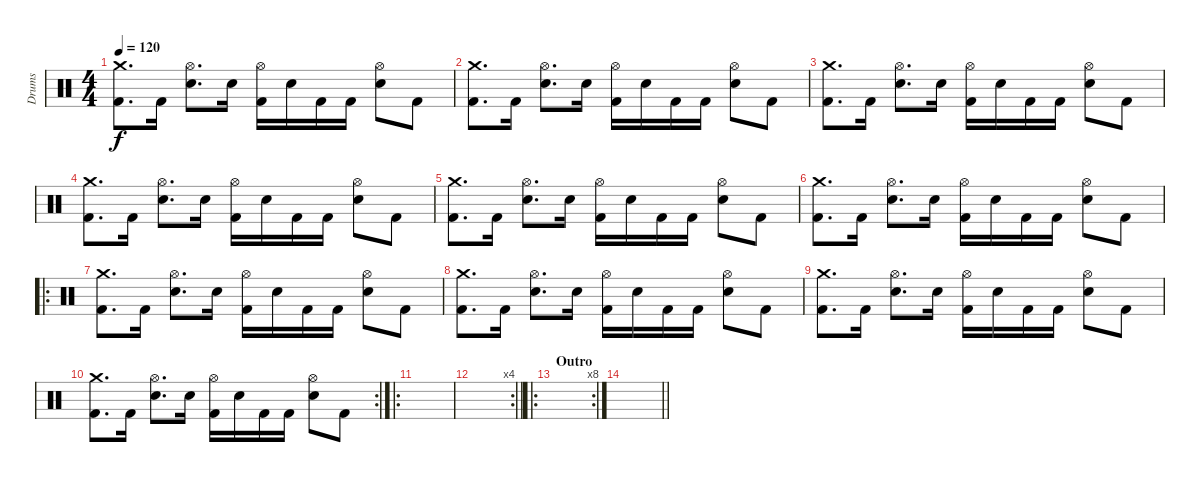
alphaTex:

\track ("Drums" "Drums") {instrument percussion}
\staff {score}
\articulation defaults
\ts (4 4)
\tempo 120
\clef neutral
\ks c
("Crash medium (hit)" "Kick (hit) 2").8{d dy f} "Kick (hit) 2".16 ("Hi-Hat (open)" "Electric Snare (hit)").8{d} "Electric Snare (hit)".16 ("Hi-Hat (open)" "Kick (hit) 2").16 "Electric Snare (hit)".16 "Kick (hit) 2".16 "Kick (hit) 2".16 ("Hi-Hat (open)" "Electric Snare (hit)").8 "Kick (hit) 2".8 |
("Crash medium (hit)" "Kick (hit) 2").8{d} "Kick (hit) 2".16 ("Hi-Hat (open)" "Electric Snare (hit)").8{d} "Electric Snare (hit)".16 ("Hi-Hat (open)" "Kick (hit) 2").16 "Electric Snare (hit)".16 "Kick (hit) 2".16 "Kick (hit) 2".16 ("Hi-Hat (open)" "Electric Snare (hit)").8 "Kick (hit) 2".8 |
("Crash medium (hit)" "Kick (hit) 2").8{d} "Kick (hit) 2".16 ("Hi-Hat (open)" "Electric Snare (hit)").8{d} "Electric Snare (hit)".16 ("Hi-Hat (open)" "Kick (hit) 2").16 "Electric Snare (hit)".16 "Kick (hit) 2".16 "Kick (hit) 2".16 ("Hi-Hat (open)" "Electric Snare (hit)").8 "Kick (hit) 2".8 |
("Crash medium (hit)" "Kick (hit) 2").8{d} "Kick (hit) 2".16 ("Hi-Hat (open)" "Electric Snare (hit)").8{d} "Electric Snare (hit)".16 ("Hi-Hat (open)" "Kick (hit) 2").16 "Electric Snare (hit)".16 "Kick (hit) 2".16 "Kick (hit) 2".16 ("Hi-Hat (open)" "Electric Snare (hit)").8 "Kick (hit) 2".8 |
("Crash medium (hit)" "Kick (hit) 2").8{d} "Kick (hit) 2".16 ("Hi-Hat (open)" "Electric Snare (hit)").8{d} "Electric Snare (hit)".16 ("Hi-Hat (open)" "Kick (hit) 2").16 "Electric Snare (hit)".16 "Kick (hit) 2".16 "Kick (hit) 2".16 ("Hi-Hat (open)" "Electric Snare (hit)").8 "Kick (hit) 2".8 |
("Crash medium (hit)" "Kick (hit) 2").8{d} "Kick (hit) 2".16 ("Hi-Hat (open)" "Electric Snare (hit)").8{d} "Electric Snare (hit)".16 ("Hi-Hat (open)" "Kick (hit) 2").16 "Electric Snare (hit)".16 "Kick (hit) 2".16 "Kick (hit) 2".16 ("Hi-Hat (open)" "Electric Snare (hit)").8 "Kick (hit) 2".8 |
\ro
("Crash medium (hit)" "Kick (hit) 2").8{d} "Kick (hit) 2".16 ("Hi-Hat (open)" "Electric Snare (hit)").8{d} "Electric Snare (hit)".16 ("Hi-Hat (open)" "Kick (hit) 2").16 "Electric Snare (hit)".16 "Kick (hit) 2".16 "Kick (hit) 2".16 ("Hi-Hat (open)" "Electric Snare (hit)").8 "Kick (hit) 2".8 |
("Crash medium (hit)" "Kick (hit) 2").8{d} "Kick (hit) 2".16 ("Hi-Hat (open)" "Electric Snare (hit)").8{d} "Electric Snare (hit)".16 ("Hi-Hat (open)" "Kick (hit) 2").16 "Electric Snare (hit)".16 "Kick (hit) 2".16 "Kick (hit) 2".16 ("Hi-Hat (open)" "Electric Snare (hit)").8 "Kick (hit) 2".8 |
("Crash medium (hit)" "Kick (hit) 2").8{d} "Kick (hit) 2".16 ("Hi-Hat (open)" "Electric Snare (hit)").8{d} "Electric Snare (hit)".16 ("Hi-Hat (open)" "Kick (hit) 2").16 "Electric Snare (hit)".16 "Kick (hit) 2".16 "Kick (hit) 2".16 ("Hi-Hat (open)" "Electric Snare (hit)").8 "Kick (hit) 2".8 |
\rc 2
("Crash medium (hit)" "Kick (hit) 2").8{d} "Kick (hit) 2".16 ("Hi-Hat (open)" "Electric Snare (hit)").8{d} "Electric Snare (hit)".16 ("Hi-Hat (open)" "Kick (hit) 2").16 "Electric Snare (hit)".16 "Kick (hit) 2".16 "Kick (hit) 2".16 ("Hi-Hat (open)" "Electric Snare (hit)").8 "Kick (hit) 2".8 |
\ro
|
\rc 4
\barLineRight lightlight
|
\ro
\rc 8
\section ("" "Outro")
|
\barLineRight lightlight
